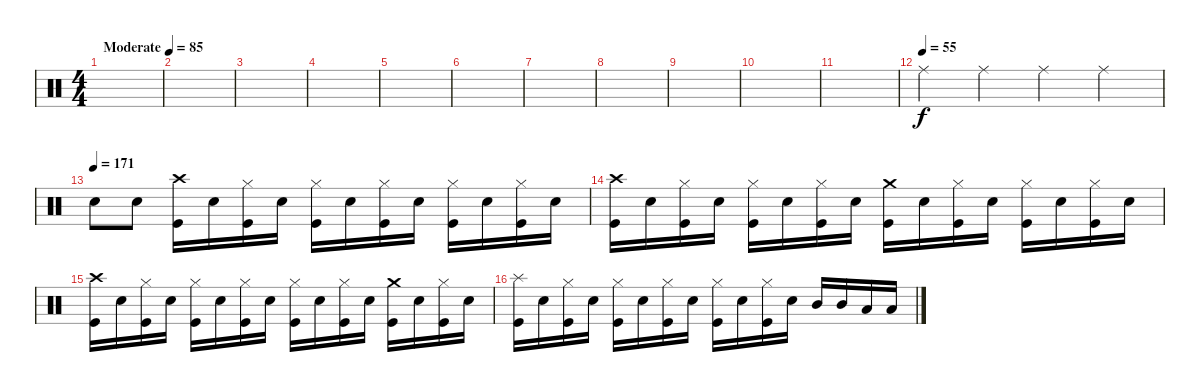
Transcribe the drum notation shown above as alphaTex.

\track "" {instrument percussion}
\staff {score}
\articulation defaults
\ts (4 4)
\tempo (85 "Moderate")
\clef neutral
\ks c
|
|
|
|
|
|
|
|
|
|
|
\tempo (55)
"Ride (middle)".4 "Ride (middle)".4 "Ride (middle)".4 "Ride (middle)".4 |
\tempo (171)
"Snare (hit) 2".8 "Snare (hit) 2".8 ("Kick (hit)" "Crash high (hit)").16 "Snare (hit) 2".16 ("Kick (hit)" "Hi-Hat (closed)").16 "Snare (hit) 2".16 ("Kick (hit)" "Hi-Hat (closed)").16 "Snare (hit) 2".16 ("Kick (hit)" "Hi-Hat (closed)").16 "Snare (hit) 2".16 ("Kick (hit)" "Hi-Hat (closed)").16 "Snare (hit) 2".16 ("Kick (hit)" "Hi-Hat (closed)").16 "Snare (hit) 2".16 |
("Kick (hit)" "Crash high (hit)").16 "Snare (hit) 2".16 ("Kick (hit)" "Hi-Hat (closed)").16 "Snare (hit) 2".16 ("Kick (hit)" "Hi-Hat (closed)").16 "Snare (hit) 2".16 ("Kick (hit)" "Hi-Hat (closed)").16 "Snare (hit) 2".16 ("Crash medium (hit)" "Kick (hit)").16 "Snare (hit) 2".16 ("Hi-Hat (closed)" "Kick (hit)").16 "Snare (hit) 2".16 ("Kick (hit)" "Hi-Hat (closed)").16 "Snare (hit) 2".16 ("Hi-Hat (closed)" "Kick (hit)").16 "Snare (hit) 2".16 |
("Kick (hit)" "Crash high (hit)").16 "Snare (hit) 2".16 ("Hi-Hat (closed)" "Kick (hit)").16 "Snare (hit) 2".16 ("Hi-Hat (closed)" "Kick (hit)").16 "Snare (hit) 2".16 ("Hi-Hat (closed)" "Kick (hit)").16 "Snare (hit) 2".16 ("Hi-Hat (closed)" "Kick (hit)").16 "Snare (hit) 2".16 ("Hi-Hat (closed)" "Kick (hit)").16 "Snare (hit) 2".16 ("Crash medium (hit)" "Kick (hit)").16 "Snare (hit) 2".16 ("Kick (hit)" "Hi-Hat (closed)").16 "Snare (hit) 2".16 |
("Kick (hit)" "Splash (hit)").16 "Snare (hit) 2".16 ("Hi-Hat (closed)" "Kick (hit)").16 "Snare (hit) 2".16 ("Hi-Hat (closed)" "Kick (hit)").16 "Snare (hit) 2".16 ("Hi-Hat (closed)" "Kick (hit)").16 "Snare (hit) 2".16 ("Hi-Hat (closed)" "Kick (hit)").16 "Snare (hit) 2".16 ("Hi-Hat (closed)" "Kick (hit)").16 "Snare (hit) 2".16 "Mid Tom (hit)".16 "Mid Tom (hit)".16 "Low Tom (hit)".16 "Low Tom (hit)".16
